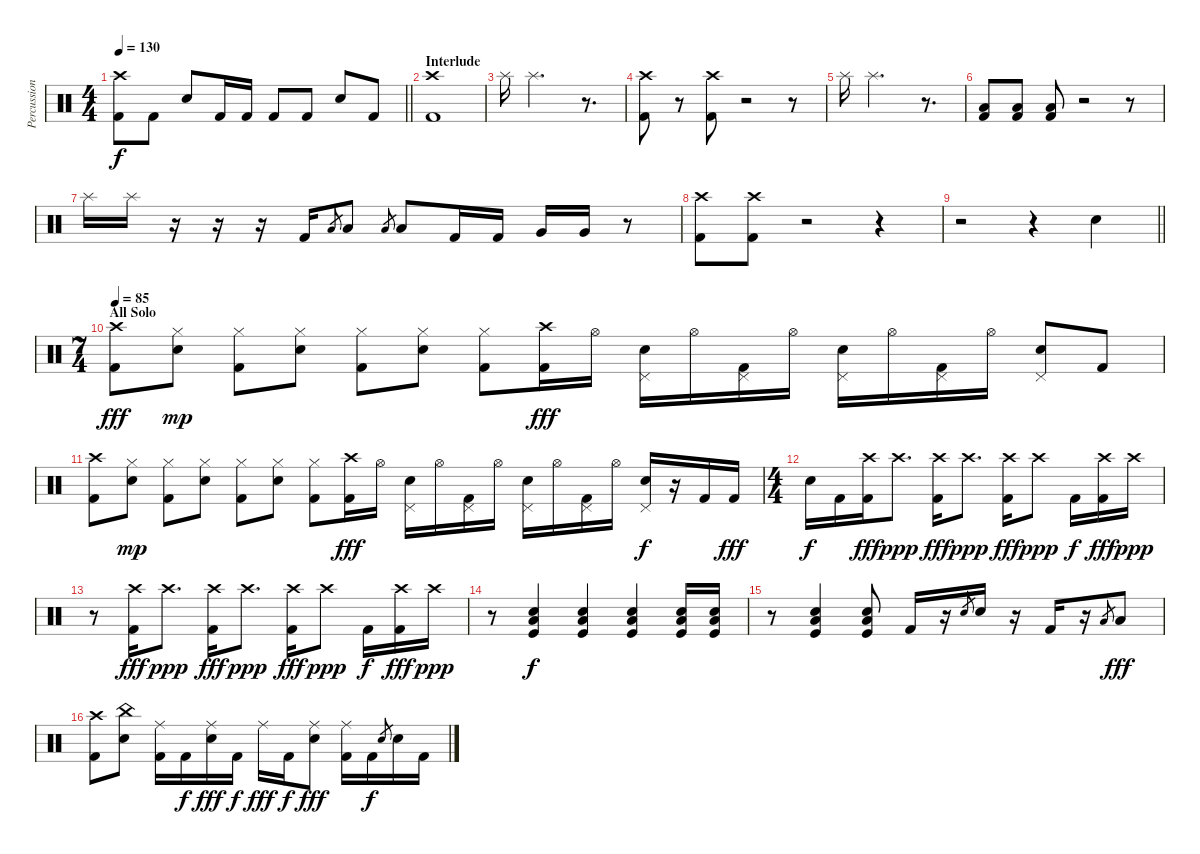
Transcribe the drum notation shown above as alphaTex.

\track ("Percussion" "Percussion") {instrument percussion}
\staff {score}
\articulation defaults
\ts (4 4)
\tempo 130
\clef neutral
\barLineRight lightlight
\ks c
("Kick (hit) 2" "Crash high (hit)").8{dy f} "Kick (hit) 2".8 "Snare (hit) 2".8 "Kick (hit) 2".16 "Kick (hit) 2".16 "Kick (hit) 2".8 "Kick (hit) 2".8 "Snare (hit) 2".8 "Kick (hit) 2".8 |
\section ("" "Interlude")
("Kick (hit) 2" "Crash high (hit)").1 |
"Splash (hit)".16 "Splash (hit)".2{d} r.8{d} |
("Crash high (hit)" "Kick (hit) 2").8 r.8 ("Crash high (hit)" "Kick (hit) 2").8 r.2 r.8 |
"Splash (hit)".16 "Splash (hit)".2{d} r.8{d} |
("Kick (hit) 2" "Low Tom (hit)").8 ("Kick (hit) 2" "Low Tom (hit)").8 ("Kick (hit) 2" "Low Tom (hit)").8 r.2 r.8 |
"Splash (hit)".16 "Splash (hit)".16 r.16 r.16 r.16 "Kick (hit) 2".16 "Low Tom (hit)".8{gr} "Low Tom (hit)".8 "Low Tom (hit)".8{gr} "Low Tom (hit)".8 "Kick (hit) 2".16 "Kick (hit) 2".16 "Very Low Tom (hit)".16 "Very Low Tom (hit)".16 r.8 |
("Crash high (hit)" "Kick (hit) 2").8 ("Crash high (hit)" "Kick (hit) 2").8 r.2 r.4 |
\barLineRight lightlight
r.2 r.4 "Snare (hit) 2".4 |
\ts (7 4)
\section ("" "All Solo")
\tempo 85
("Crash high (hit)" "Kick (hit) 2").8{dy fff} ("Snare (hit) 2" "Hi-Hat (closed)").8{dy mp} ("Kick (hit) 2" "Hi-Hat (closed)").8 ("Snare (hit) 2" "Hi-Hat (closed)").8 ("Kick (hit) 2" "Hi-Hat (closed)").8 ("Snare (hit) 2" "Hi-Hat (closed)").8 ("Kick (hit) 2" "Hi-Hat (closed)").8 ("Kick (hit) 2" "Crash high (hit)").16{dy fff} "Hi-Hat (open)".16 ("Snare (hit) 2" "Pedal Hi-Hat (hit)").16 "Hi-Hat (open)".16 ("Kick (hit) 2" "Pedal Hi-Hat (hit)").16 "Hi-Hat (open)".16 ("Snare (hit) 2" "Pedal Hi-Hat (hit)").16 "Hi-Hat (open)".16 ("Kick (hit) 2" "Pedal Hi-Hat (hit)").16 "Hi-Hat (open)".16 ("Snare (hit) 2" "Pedal Hi-Hat (hit)").8 "Kick (hit) 2".8 |
("Crash high (hit)" "Kick (hit) 2").8 ("Snare (hit) 2" "Hi-Hat (closed)").8{dy mp} ("Kick (hit) 2" "Hi-Hat (closed)").8 ("Snare (hit) 2" "Hi-Hat (closed)").8 ("Kick (hit) 2" "Hi-Hat (closed)").8 ("Snare (hit) 2" "Hi-Hat (closed)").8 ("Kick (hit) 2" "Hi-Hat (closed)").8 ("Kick (hit) 2" "Crash high (hit)").16{dy fff} "Hi-Hat (open)".16 ("Snare (hit) 2" "Pedal Hi-Hat (hit)").16 "Hi-Hat (open)".16 ("Kick (hit) 2" "Pedal Hi-Hat (hit)").16 "Hi-Hat (open)".16 ("Snare (hit) 2" "Pedal Hi-Hat (hit)").16 "Hi-Hat (open)".16 ("Kick (hit) 2" "Pedal Hi-Hat (hit)").16 "Hi-Hat (open)".16 ("Snare (hit) 2" "Pedal Hi-Hat (hit)").16{dy f} r.16 "Kick (hit) 2".16 "Kick (hit) 2".16{dy fff} |
\ts (4 4)
"Snare (hit) 2".16{dy f} "Kick (hit) 2".16 ("Kick (hit) 2" "Crash high (hit)").16{dy fff} "Crash high (hit)".8{d dy ppp} ("Kick (hit) 2" "Crash high (hit)").16{dy fff} "Crash high (hit)".8{d dy ppp} ("Kick (hit) 2" "Crash high (hit)").16{dy fff} "Crash high (hit)".8{dy ppp} "Kick (hit) 2".16{dy f} ("Kick (hit) 2" "Crash high (hit)").16{dy fff} "Crash high (hit)".16{dy ppp} |
r.8 ("Kick (hit) 2" "Crash high (hit)").16{dy fff} "Crash high (hit)".8{d dy ppp} ("Kick (hit) 2" "Crash high (hit)").16{dy fff} "Crash high (hit)".8{d dy ppp} ("Kick (hit) 2" "Crash high (hit)").16{dy fff} "Crash high (hit)".8{dy ppp} "Kick (hit) 2".16{dy f} ("Kick (hit) 2" "Crash high (hit)").16{dy fff} "Crash high (hit)".16{dy ppp} |
r.8 ("Snare (hit) 2" "Kick (hit)" "Low Tom (hit)").4{dy f} ("Snare (hit) 2" "Kick (hit)" "Low Tom (hit)").4 ("Snare (hit) 2" "Kick (hit)" "Low Tom (hit)").4 ("Snare (hit) 2" "Kick (hit)" "Low Tom (hit)").16 ("Snare (hit) 2" "Kick (hit)" "Low Tom (hit)").16 |
r.8 ("Snare (hit) 2" "Kick (hit)" "Low Tom (hit)").4 ("Snare (hit) 2" "Kick (hit)" "Low Tom (hit)").8 "Kick (hit) 2".16 r.16 "Snare (hit) 2".8{gr} "Snare (hit) 2".16 r.16 "Kick (hit) 2".16 r.16 "Low Tom (hit)".8{gr} "Low Tom (hit)".8{dy fff} |
("Kick (hit) 2" "Crash high (hit)").8 ("Snare (hit) 2" "China (hit)").8 ("Kick (hit) 2" "Ride (middle)").16 "Kick (hit) 2".16{dy f} ("Snare (hit) 2" "Ride (middle)").16{dy fff} "Kick (hit) 2".16{dy f} "Ride (middle)".16{dy fff} "Kick (hit) 2".16{dy f} ("Snare (hit) 2" "Ride (middle)").8{dy fff} ("Kick (hit) 2" "Ride (middle)").16 "Kick (hit) 2".16{dy f} "Snare (hit) 2".8{gr} "Snare (hit) 2".16 "Kick (hit) 2".16
